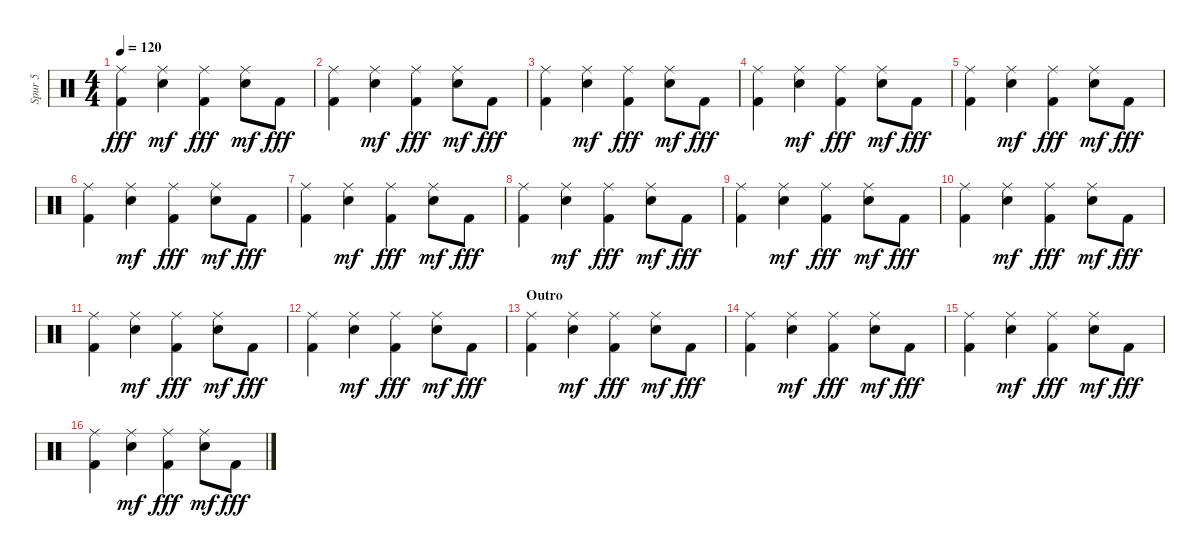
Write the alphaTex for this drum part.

\track ("Spur 5" "Spur 5") {instrument percussion}
\staff {score}
\articulation defaults
\ts (4 4)
\tempo 120
\clef neutral
\ks c
("Ride (middle)" "Kick (hit) 2").4{dy fff} ("Ride (middle)" "Snare (hit) 2").4{dy mf} ("Ride (middle)" "Kick (hit) 2").4{dy fff} ("Ride (middle)" "Snare (hit) 2").8{dy mf} "Kick (hit) 2".8{dy fff} |
("Ride (middle)" "Kick (hit) 2").4 ("Ride (middle)" "Snare (hit) 2").4{dy mf} ("Ride (middle)" "Kick (hit) 2").4{dy fff} ("Ride (middle)" "Snare (hit) 2").8{dy mf} "Kick (hit) 2".8{dy fff} |
("Ride (middle)" "Kick (hit) 2").4 ("Ride (middle)" "Snare (hit) 2").4{dy mf} ("Ride (middle)" "Kick (hit) 2").4{dy fff} ("Ride (middle)" "Snare (hit) 2").8{dy mf} "Kick (hit) 2".8{dy fff} |
("Ride (middle)" "Kick (hit) 2").4 ("Ride (middle)" "Snare (hit) 2").4{dy mf} ("Ride (middle)" "Kick (hit) 2").4{dy fff} ("Ride (middle)" "Snare (hit) 2").8{dy mf} "Kick (hit) 2".8{dy fff} |
("Ride (middle)" "Kick (hit) 2").4 ("Ride (middle)" "Snare (hit) 2").4{dy mf} ("Ride (middle)" "Kick (hit) 2").4{dy fff} ("Ride (middle)" "Snare (hit) 2").8{dy mf} "Kick (hit) 2".8{dy fff} |
("Ride (middle)" "Kick (hit) 2").4 ("Ride (middle)" "Snare (hit) 2").4{dy mf} ("Ride (middle)" "Kick (hit) 2").4{dy fff} ("Ride (middle)" "Snare (hit) 2").8{dy mf} "Kick (hit) 2".8{dy fff} |
("Ride (middle)" "Kick (hit) 2").4 ("Ride (middle)" "Snare (hit) 2").4{dy mf} ("Ride (middle)" "Kick (hit) 2").4{dy fff} ("Ride (middle)" "Snare (hit) 2").8{dy mf} "Kick (hit) 2".8{dy fff} |
("Ride (middle)" "Kick (hit) 2").4 ("Ride (middle)" "Snare (hit) 2").4{dy mf} ("Ride (middle)" "Kick (hit) 2").4{dy fff} ("Ride (middle)" "Snare (hit) 2").8{dy mf} "Kick (hit) 2".8{dy fff} |
("Ride (middle)" "Kick (hit) 2").4 ("Ride (middle)" "Snare (hit) 2").4{dy mf} ("Ride (middle)" "Kick (hit) 2").4{dy fff} ("Ride (middle)" "Snare (hit) 2").8{dy mf} "Kick (hit) 2".8{dy fff} |
("Ride (middle)" "Kick (hit) 2").4 ("Ride (middle)" "Snare (hit) 2").4{dy mf} ("Ride (middle)" "Kick (hit) 2").4{dy fff} ("Ride (middle)" "Snare (hit) 2").8{dy mf} "Kick (hit) 2".8{dy fff} |
("Ride (middle)" "Kick (hit) 2").4 ("Ride (middle)" "Snare (hit) 2").4{dy mf} ("Ride (middle)" "Kick (hit) 2").4{dy fff} ("Ride (middle)" "Snare (hit) 2").8{dy mf} "Kick (hit) 2".8{dy fff} |
("Ride (middle)" "Kick (hit) 2").4 ("Ride (middle)" "Snare (hit) 2").4{dy mf} ("Ride (middle)" "Kick (hit) 2").4{dy fff} ("Ride (middle)" "Snare (hit) 2").8{dy mf} "Kick (hit) 2".8{dy fff} |
\section ("" "Outro")
("Ride (middle)" "Kick (hit) 2").4 ("Ride (middle)" "Snare (hit) 2").4{dy mf} ("Ride (middle)" "Kick (hit) 2").4{dy fff} ("Ride (middle)" "Snare (hit) 2").8{dy mf} "Kick (hit) 2".8{dy fff} |
("Ride (middle)" "Kick (hit) 2").4 ("Ride (middle)" "Snare (hit) 2").4{dy mf} ("Ride (middle)" "Kick (hit) 2").4{dy fff} ("Ride (middle)" "Snare (hit) 2").8{dy mf} "Kick (hit) 2".8{dy fff} |
("Ride (middle)" "Kick (hit) 2").4 ("Ride (middle)" "Snare (hit) 2").4{dy mf} ("Ride (middle)" "Kick (hit) 2").4{dy fff} ("Ride (middle)" "Snare (hit) 2").8{dy mf} "Kick (hit) 2".8{dy fff} |
("Ride (middle)" "Kick (hit) 2").4 ("Ride (middle)" "Snare (hit) 2").4{dy mf} ("Ride (middle)" "Kick (hit) 2").4{dy fff} ("Ride (middle)" "Snare (hit) 2").8{dy mf} "Kick (hit) 2".8{dy fff}
